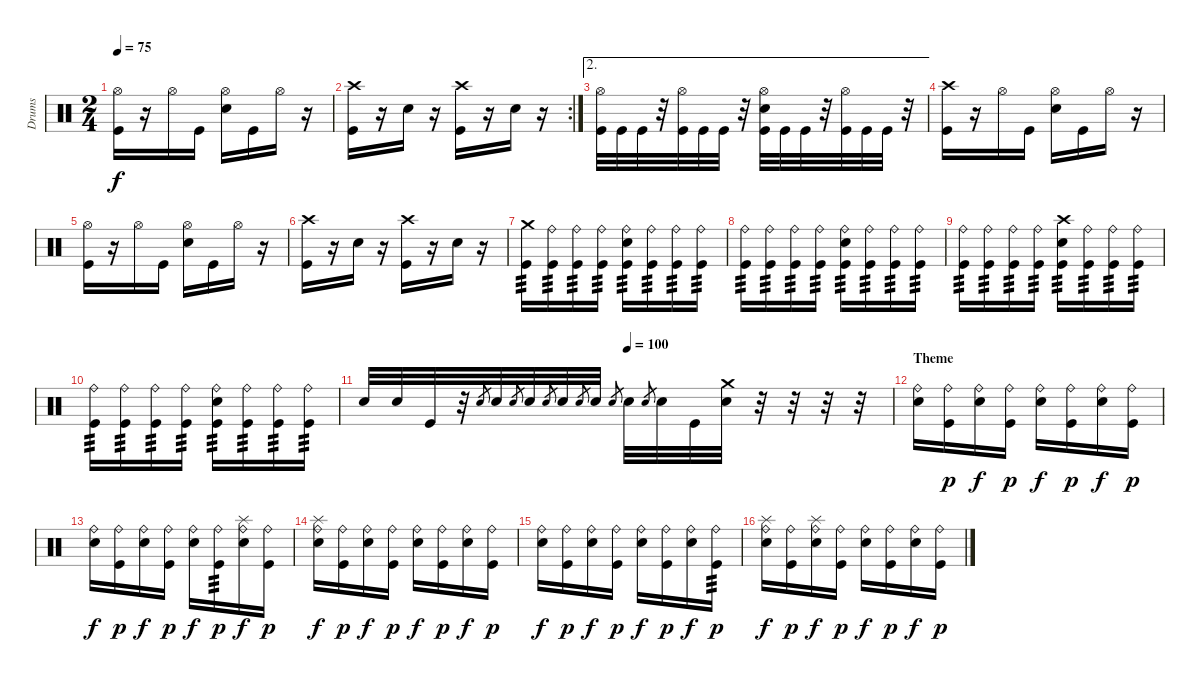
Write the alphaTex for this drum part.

\track ("Drums" "Drums") {instrument percussion}
\staff {score}
\articulation defaults
\ts (2 4)
\tempo 75
\clef neutral
\ks c
("Kick (hit)" "Hi-Hat (open)").16{dy f} r.16 "Hi-Hat (open)".16 "Kick (hit)".16 ("Electric Snare (hit)" "Hi-Hat (open)").16 "Kick (hit)".16 "Hi-Hat (open)".16 r.16 |
\rc 2
("Kick (hit)" "Crash high (hit)").16 r.16 "Electric Snare (hit)".16 r.16 ("Crash high (hit)" "Kick (hit)").16 r.16 "Electric Snare (hit)".16 r.16 |
\ae 2
("Hi-Hat (open)" "Kick (hit)").32 "Kick (hit)".32 "Kick (hit)".32 r.32 ("Hi-Hat (open)" "Kick (hit)").32 "Kick (hit)".32 "Kick (hit)".32 r.32 ("Hi-Hat (open)" "Electric Snare (hit)" "Kick (hit)").32 "Kick (hit)".32 "Kick (hit)".32 r.32 ("Hi-Hat (open)" "Kick (hit)").32 "Kick (hit)".32 "Kick (hit)".32 r.32 |
("Crash high (hit)" "Kick (hit)").16 r.16 "Hi-Hat (open)".16 "Kick (hit)".16 ("Electric Snare (hit)" "Hi-Hat (open)").16 "Kick (hit)".16 "Hi-Hat (open)".16 r.16 |
("Kick (hit)" "Hi-Hat (open)").16 r.16 "Hi-Hat (open)".16 "Kick (hit)".16 ("Electric Snare (hit)" "Hi-Hat (open)").16 "Kick (hit)".16 "Hi-Hat (open)".16 r.16 |
("Kick (hit)" "Crash high (hit)").16 r.16 "Electric Snare (hit)".16 r.16 ("Crash high (hit)" "Kick (hit)").16 r.16 "Electric Snare (hit)".16 r.16 |
("Crash medium (hit)" "Kick (hit)").16{tp 3} ("Ride (bell)" "Kick (hit)").16{tp 3} ("Ride (bell)" "Kick (hit)").16{tp 3} ("Ride (bell)" "Kick (hit)").16{tp 3} ("Ride (bell)" "Electric Snare (hit)" "Kick (hit)").16{tp 3} ("Ride (bell)" "Kick (hit)").16{tp 3} ("Ride (bell)" "Kick (hit)").16{tp 3} ("Ride (bell)" "Kick (hit)").16{tp 3} |
("Ride (bell)" "Kick (hit)").16{tp 3} ("Ride (bell)" "Kick (hit)").16{tp 3} ("Ride (bell)" "Kick (hit)").16{tp 3} ("Ride (bell)" "Kick (hit)").16{tp 3} ("Ride (bell)" "Electric Snare (hit)" "Kick (hit)").16{tp 3} ("Ride (bell)" "Kick (hit)").16{tp 3} ("Ride (bell)" "Kick (hit)").16{tp 3} ("Ride (bell)" "Kick (hit)").16{tp 3} |
("Ride (bell)" "Kick (hit)").16{tp 3} ("Ride (bell)" "Kick (hit)").16{tp 3} ("Ride (bell)" "Kick (hit)").16{tp 3} ("Ride (bell)" "Kick (hit)").16{tp 3} ("Crash high (hit)" "Electric Snare (hit)" "Kick (hit)").16{tp 3} ("Ride (bell)" "Kick (hit)").16{tp 3} ("Ride (bell)" "Kick (hit)").16{tp 3} ("Ride (bell)" "Kick (hit)").16{tp 3} |
("Ride (bell)" "Kick (hit)").16{tp 3} ("Ride (bell)" "Kick (hit)").16{tp 3} ("Ride (bell)" "Kick (hit)").16{tp 3} ("Ride (bell)" "Kick (hit)").16{tp 3} ("Ride (bell)" "Electric Snare (hit)" "Kick (hit)").16{tp 3} ("Ride (bell)" "Kick (hit)").16{tp 3} ("Ride (bell)" "Kick (hit)").16{tp 3} ("Ride (bell)" "Kick (hit)").16{tp 3} |
\tempo (100 0.5)
"Electric Snare (hit)".32 "Electric Snare (hit)".32 "Kick (hit)".32 r.32 "Electric Snare (hit)".8{gr} "Electric Snare (hit)".32 "Electric Snare (hit)".8{gr} "Electric Snare (hit)".32 "Electric Snare (hit)".8{gr} "Electric Snare (hit)".32 "Electric Snare (hit)".8{gr} "Electric Snare (hit)".32 "Electric Snare (hit)".8{gr} "Electric Snare (hit)".32 "Electric Snare (hit)".8{gr} "Electric Snare (hit)".32 "Kick (hit)".32 ("Electric Snare (hit)" "Crash medium (hit)").32 r.32 r.32 r.32 r.32 |
\section ("" "Theme")
("Electric Snare (hit)" "Ride (bell)").16 ("Kick (hit)" "Ride (bell)").16{dy p} ("Electric Snare (hit)" "Ride (bell)").16{dy f} ("Kick (hit)" "Ride (bell)").16{dy p} ("Electric Snare (hit)" "Ride (bell)").16{dy f} ("Kick (hit)" "Ride (bell)").16{dy p} ("Electric Snare (hit)" "Ride (bell)").16{dy f} ("Kick (hit)" "Ride (bell)").16{dy p} |
("Electric Snare (hit)" "Ride (bell)").16{dy f} ("Kick (hit)" "Ride (bell)").16{dy p} ("Electric Snare (hit)" "Ride (bell)").16{dy f} ("Kick (hit)" "Ride (bell)").16{dy p} ("Electric Snare (hit)" "Ride (bell)").16{dy f} ("Kick (hit)" "Ride (bell)").16{tp 3 dy p} ("Electric Snare (hit)" "Splash (hit)" "Ride (bell)").16{dy f} ("Kick (hit)" "Ride (bell)").16{dy p} |
("Electric Snare (hit)" "Splash (hit)" "Ride (bell)").16{dy f} ("Kick (hit)" "Ride (bell)").16{dy p} ("Electric Snare (hit)" "Ride (bell)").16{dy f} ("Kick (hit)" "Ride (bell)").16{dy p} ("Electric Snare (hit)" "Ride (bell)").16{dy f} ("Kick (hit)" "Ride (bell)").16{dy p} ("Electric Snare (hit)" "Ride (bell)").16{dy f} ("Kick (hit)" "Ride (bell)").16{dy p} |
("Electric Snare (hit)" "Ride (bell)").16{dy f} ("Kick (hit)" "Ride (bell)").16{dy p} ("Electric Snare (hit)" "Ride (bell)").16{dy f} ("Kick (hit)" "Ride (bell)").16{dy p} ("Electric Snare (hit)" "Ride (bell)").16{dy f} ("Kick (hit)" "Ride (bell)").16{dy p} ("Electric Snare (hit)" "Ride (bell)").16{dy f} ("Kick (hit)" "Ride (bell)").16{tp 3 dy p} |
("Electric Snare (hit)" "Splash (hit)" "Ride (bell)").16{dy f} ("Kick (hit)" "Ride (bell)").16{dy p} ("Electric Snare (hit)" "Splash (hit)" "Ride (bell)").16{dy f} ("Kick (hit)" "Ride (bell)").16{dy p} ("Electric Snare (hit)" "Ride (bell)").16{dy f} ("Kick (hit)" "Ride (bell)").16{dy p} ("Electric Snare (hit)" "Ride (bell)").16{dy f} ("Kick (hit)" "Ride (bell)").16{dy p}
